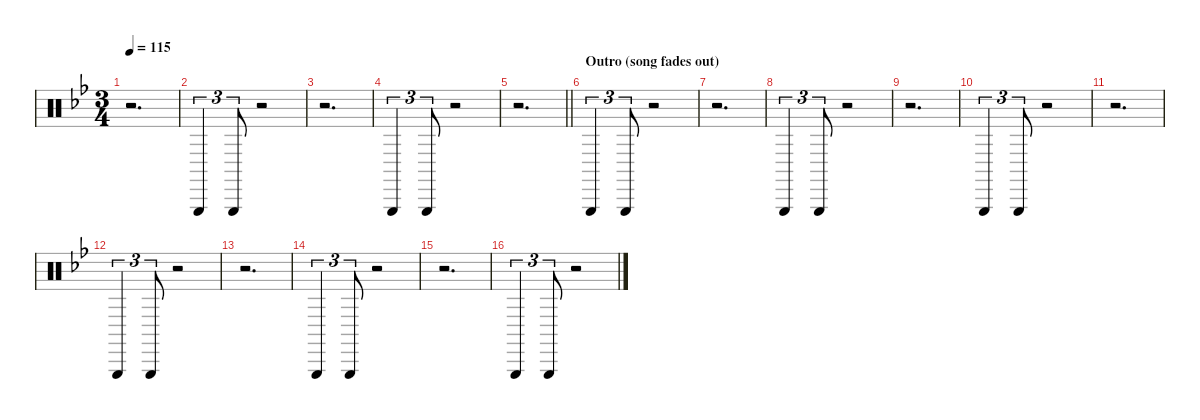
\defaultSystemsLayout 4
\hideDynamics
\bracketExtendMode nobrackets
\singleTrackTrackNamePolicy hidden
\multiTrackTrackNamePolicy hidden
\firstSystemTrackNameMode fullname
\firstSystemTrackNameOrientation horizontal
\otherSystemsTrackNameOrientation horizontal
\track ("Percussion" "drm.") {defaultSystemsLayout 16 instrument percussion}
\staff {score}
\articulation defaults
\ts (3 4)
\tempo 115
\clef neutral
\ks gminor
r.2{d dy p beam Down} |
"Triangle (hit)"{acc forcenatural}.4{tu (3 2) dy mf beam Up} "Triangle (hit)"{acc forcenatural}.8{tu (3 2) dy p beam Up} r.2{beam Up} |
r.2{d beam Down} |
"Triangle (hit)"{acc forcenatural}.4{tu (3 2) dy mf beam Up} "Triangle (hit)"{acc forcenatural}.8{tu (3 2) dy p beam Up} r.2{beam Up} |
\barLineRight lightlight
r.2{d beam Down} |
\section ("" "Outro (song fades out)")
"Triangle (hit)"{acc forcenatural}.4{tu (3 2) dy mf beam Up} "Triangle (hit)"{acc forcenatural}.8{tu (3 2) dy p beam Up} r.2{beam Up} |
r.2{d beam Down} |
"Triangle (hit)"{acc forcenatural}.4{tu (3 2) dy mf beam Up} "Triangle (hit)"{acc forcenatural}.8{tu (3 2) dy p beam Up} r.2{beam Up} |
r.2{d beam Down} |
"Triangle (hit)"{acc forcenatural}.4{tu (3 2) dy mf beam Up} "Triangle (hit)"{acc forcenatural}.8{tu (3 2) dy p beam Up} r.2{beam Up} |
r.2{d beam Down} |
"Triangle (hit)"{acc forcenatural}.4{tu (3 2) dy mf beam Up} "Triangle (hit)"{acc forcenatural}.8{tu (3 2) dy p beam Up} r.2{beam Up} |
r.2{d beam Down} |
"Triangle (hit)"{acc forcenatural}.4{tu (3 2) dy mf beam Up} "Triangle (hit)"{acc forcenatural}.8{tu (3 2) dy p beam Up} r.2{beam Up} |
r.2{d beam Down} |
"Triangle (hit)"{acc forcenatural}.4{tu (3 2) dy mf beam Up} "Triangle (hit)"{acc forcenatural}.8{tu (3 2) dy p beam Up} r.2{beam Up}
